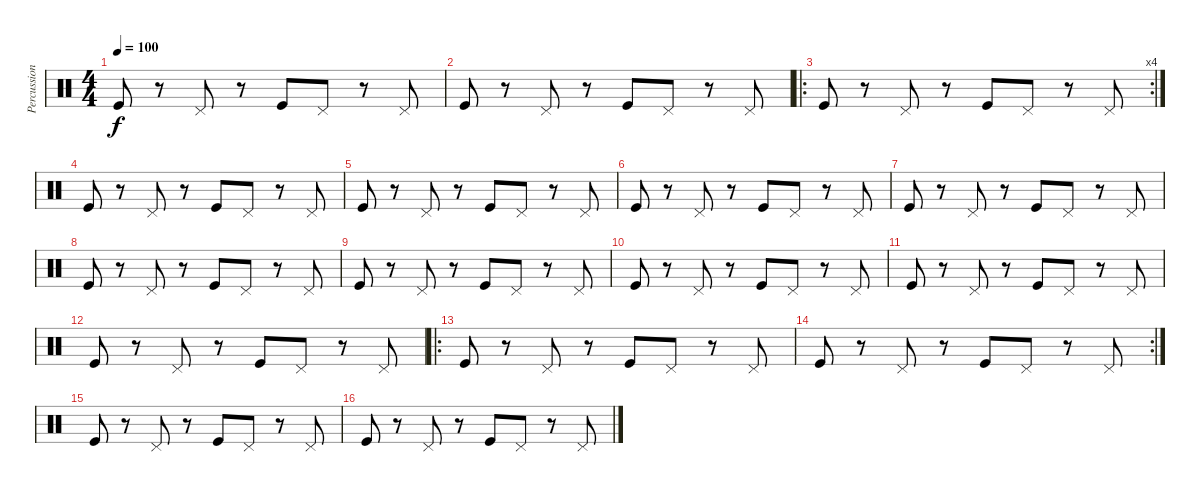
\track ("Percussions" "Percussion") {instrument percussion}
\staff {score}
\articulation defaults
\ts (4 4)
\tempo 100
\clef neutral
\ks c "Kick (hit)".8{dy f}
r.8 "Pedal Hi-Hat (hit)".8 r.8 "Kick (hit)".8 "Pedal Hi-Hat (hit)".8 r.8 "Pedal Hi-Hat (hit)".8 |
"Kick (hit)".8 r.8 "Pedal Hi-Hat (hit)".8 r.8 "Kick (hit)".8 "Pedal Hi-Hat (hit)".8 r.8 "Pedal Hi-Hat (hit)".8 |
\ro
\rc 4 "Kick (hit)".8
r.8 "Pedal Hi-Hat (hit)".8 r.8 "Kick (hit)".8 "Pedal Hi-Hat (hit)".8 r.8 "Pedal Hi-Hat (hit)".8 |
"Kick (hit)".8 r.8 "Pedal Hi-Hat (hit)".8 r.8 "Kick (hit)".8 "Pedal Hi-Hat (hit)".8 r.8 "Pedal Hi-Hat (hit)".8 |
"Kick (hit)".8 r.8 "Pedal Hi-Hat (hit)".8 r.8 "Kick (hit)".8 "Pedal Hi-Hat (hit)".8 r.8 "Pedal Hi-Hat (hit)".8 |
"Kick (hit)".8 r.8 "Pedal Hi-Hat (hit)".8 r.8 "Kick (hit)".8 "Pedal Hi-Hat (hit)".8 r.8 "Pedal Hi-Hat (hit)".8 |
"Kick (hit)".8 r.8 "Pedal Hi-Hat (hit)".8 r.8 "Kick (hit)".8 "Pedal Hi-Hat (hit)".8 r.8 "Pedal Hi-Hat (hit)".8 |
"Kick (hit)".8 r.8 "Pedal Hi-Hat (hit)".8 r.8 "Kick (hit)".8 "Pedal Hi-Hat (hit)".8 r.8 "Pedal Hi-Hat (hit)".8 |
"Kick (hit)".8 r.8 "Pedal Hi-Hat (hit)".8 r.8 "Kick (hit)".8 "Pedal Hi-Hat (hit)".8 r.8 "Pedal Hi-Hat (hit)".8 |
"Kick (hit)".8 r.8 "Pedal Hi-Hat (hit)".8 r.8 "Kick (hit)".8 "Pedal Hi-Hat (hit)".8 r.8 "Pedal Hi-Hat (hit)".8 |
"Kick (hit)".8 r.8 "Pedal Hi-Hat (hit)".8 r.8 "Kick (hit)".8 "Pedal Hi-Hat (hit)".8 r.8 "Pedal Hi-Hat (hit)".8 |
"Kick (hit)".8 r.8 "Pedal Hi-Hat (hit)".8 r.8 "Kick (hit)".8 "Pedal Hi-Hat (hit)".8 r.8 "Pedal Hi-Hat (hit)".8 |
\ro "Kick (hit)".8
r.8 "Pedal Hi-Hat (hit)".8 r.8 "Kick (hit)".8 "Pedal Hi-Hat (hit)".8 r.8 "Pedal Hi-Hat (hit)".8 |
\rc 2 "Kick (hit)".8
r.8 "Pedal Hi-Hat (hit)".8 r.8 "Kick (hit)".8 "Pedal Hi-Hat (hit)".8 r.8 "Pedal Hi-Hat (hit)".8 |
"Kick (hit)".8 r.8 "Pedal Hi-Hat (hit)".8 r.8 "Kick (hit)".8 "Pedal Hi-Hat (hit)".8 r.8 "Pedal Hi-Hat (hit)".8 |
"Kick (hit)".8 r.8 "Pedal Hi-Hat (hit)".8 r.8 "Kick (hit)".8 "Pedal Hi-Hat (hit)".8 r.8 "Pedal Hi-Hat (hit)".8
